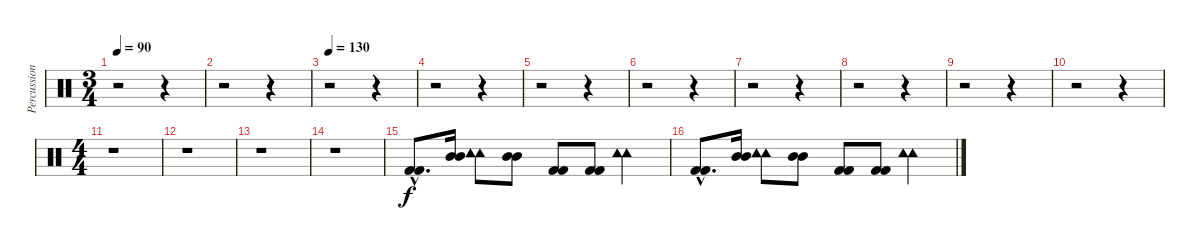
\track ("Percussion" "Percussion") {instrument percussion}
\staff {score}
\articulation defaults
\ts (3 4)
\tempo 90
\clef neutral
\ks c
r.2{dy f} r.4 |
r.2 r.4 |
\tempo 130
r.2 r.4 |
r.2 r.4 |
r.2 r.4 |
r.2 r.4 |
r.2 r.4 |
r.2 r.4 |
r.2 r.4 |
r.2 r.4 |
\ts (4 4)
r.1 |
r.1 |
r.1 |
r.1 |
("Kick (hit) 2"{hac} "Kick (hit) 2"{hac}).8{d} ("Mid Tom (hit)" "Mid Tom (hit)").16 ("Tambourine (hit)" "Tambourine (hit)").8 ("Mid Tom (hit)" "Mid Tom (hit)").8 ("Kick (hit) 2" "Kick (hit) 2").8 ("Kick (hit) 2" "Kick (hit) 2").8 ("Tambourine (hit)" "Tambourine (hit)").4 |
("Kick (hit) 2"{hac} "Kick (hit) 2"{hac}).8{d} ("Mid Tom (hit)" "Mid Tom (hit)").16 ("Tambourine (hit)" "Tambourine (hit)").8 ("Mid Tom (hit)" "Mid Tom (hit)").8 ("Kick (hit) 2" "Kick (hit) 2").8 ("Kick (hit) 2" "Kick (hit) 2").8 ("Tambourine (hit)" "Tambourine (hit)").4
